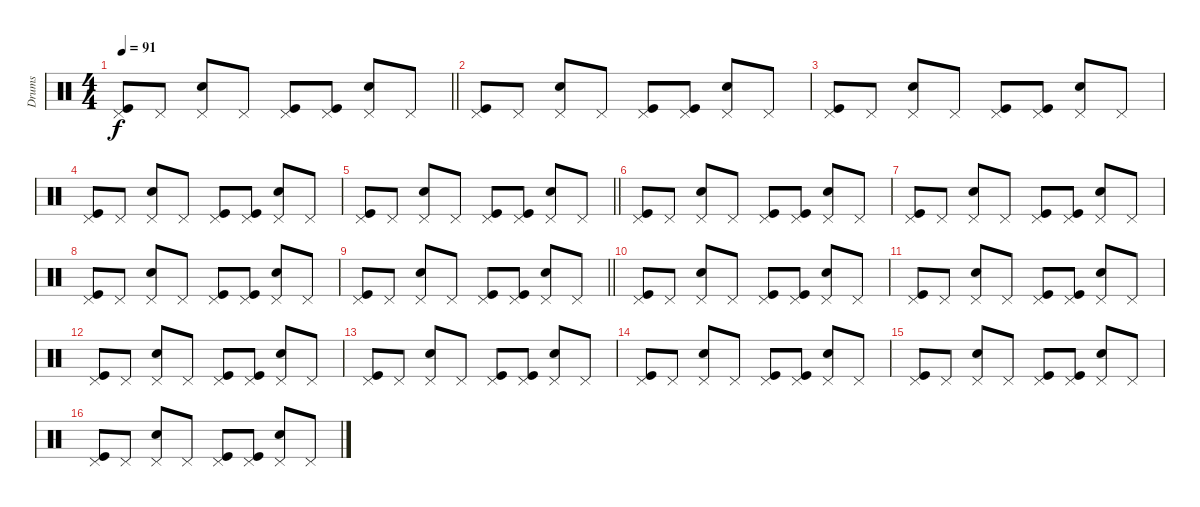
\track ("Drums" "Drums") {instrument percussion}
\staff {score}
\articulation defaults
\ts (4 4)
\tempo 91
\clef neutral
\barLineRight lightlight
\ks c
("Kick (hit)" "Pedal Hi-Hat (hit)").8{dy f} "Pedal Hi-Hat (hit)".8 ("Snare (hit) 2" "Pedal Hi-Hat (hit)").8 "Pedal Hi-Hat (hit)".8 ("Kick (hit)" "Pedal Hi-Hat (hit)").8 ("Kick (hit)" "Pedal Hi-Hat (hit)").8 ("Snare (hit) 2" "Pedal Hi-Hat (hit)").8 "Pedal Hi-Hat (hit)".8 |
("Kick (hit)" "Pedal Hi-Hat (hit)").8 "Pedal Hi-Hat (hit)".8 ("Snare (hit) 2" "Pedal Hi-Hat (hit)").8 "Pedal Hi-Hat (hit)".8 ("Kick (hit)" "Pedal Hi-Hat (hit)").8 ("Kick (hit)" "Pedal Hi-Hat (hit)").8 ("Snare (hit) 2" "Pedal Hi-Hat (hit)").8 "Pedal Hi-Hat (hit)".8 |
("Kick (hit)" "Pedal Hi-Hat (hit)").8 "Pedal Hi-Hat (hit)".8 ("Snare (hit) 2" "Pedal Hi-Hat (hit)").8 "Pedal Hi-Hat (hit)".8 ("Kick (hit)" "Pedal Hi-Hat (hit)").8 ("Kick (hit)" "Pedal Hi-Hat (hit)").8 ("Snare (hit) 2" "Pedal Hi-Hat (hit)").8 "Pedal Hi-Hat (hit)".8 |
("Kick (hit)" "Pedal Hi-Hat (hit)").8 "Pedal Hi-Hat (hit)".8 ("Snare (hit) 2" "Pedal Hi-Hat (hit)").8 "Pedal Hi-Hat (hit)".8 ("Kick (hit)" "Pedal Hi-Hat (hit)").8 ("Kick (hit)" "Pedal Hi-Hat (hit)").8 ("Snare (hit) 2" "Pedal Hi-Hat (hit)").8 "Pedal Hi-Hat (hit)".8 |
\barLineRight lightlight
("Kick (hit)" "Pedal Hi-Hat (hit)").8 "Pedal Hi-Hat (hit)".8 ("Snare (hit) 2" "Pedal Hi-Hat (hit)").8 "Pedal Hi-Hat (hit)".8 ("Kick (hit)" "Pedal Hi-Hat (hit)").8 ("Kick (hit)" "Pedal Hi-Hat (hit)").8 ("Snare (hit) 2" "Pedal Hi-Hat (hit)").8 "Pedal Hi-Hat (hit)".8 |
("Kick (hit)" "Pedal Hi-Hat (hit)").8 "Pedal Hi-Hat (hit)".8 ("Snare (hit) 2" "Pedal Hi-Hat (hit)").8 "Pedal Hi-Hat (hit)".8 ("Kick (hit)" "Pedal Hi-Hat (hit)").8 ("Kick (hit)" "Pedal Hi-Hat (hit)").8 ("Snare (hit) 2" "Pedal Hi-Hat (hit)").8 "Pedal Hi-Hat (hit)".8 |
("Kick (hit)" "Pedal Hi-Hat (hit)").8 "Pedal Hi-Hat (hit)".8 ("Snare (hit) 2" "Pedal Hi-Hat (hit)").8 "Pedal Hi-Hat (hit)".8 ("Kick (hit)" "Pedal Hi-Hat (hit)").8 ("Kick (hit)" "Pedal Hi-Hat (hit)").8 ("Snare (hit) 2" "Pedal Hi-Hat (hit)").8 "Pedal Hi-Hat (hit)".8 |
("Kick (hit)" "Pedal Hi-Hat (hit)").8 "Pedal Hi-Hat (hit)".8 ("Snare (hit) 2" "Pedal Hi-Hat (hit)").8 "Pedal Hi-Hat (hit)".8 ("Kick (hit)" "Pedal Hi-Hat (hit)").8 ("Kick (hit)" "Pedal Hi-Hat (hit)").8 ("Snare (hit) 2" "Pedal Hi-Hat (hit)").8 "Pedal Hi-Hat (hit)".8 |
\barLineRight lightlight
("Kick (hit)" "Pedal Hi-Hat (hit)").8 "Pedal Hi-Hat (hit)".8 ("Snare (hit) 2" "Pedal Hi-Hat (hit)").8 "Pedal Hi-Hat (hit)".8 ("Kick (hit)" "Pedal Hi-Hat (hit)").8 ("Kick (hit)" "Pedal Hi-Hat (hit)").8 ("Snare (hit) 2" "Pedal Hi-Hat (hit)").8 "Pedal Hi-Hat (hit)".8 |
("Kick (hit)" "Pedal Hi-Hat (hit)").8 "Pedal Hi-Hat (hit)".8 ("Snare (hit) 2" "Pedal Hi-Hat (hit)").8 "Pedal Hi-Hat (hit)".8 ("Kick (hit)" "Pedal Hi-Hat (hit)").8 ("Kick (hit)" "Pedal Hi-Hat (hit)").8 ("Snare (hit) 2" "Pedal Hi-Hat (hit)").8 "Pedal Hi-Hat (hit)".8 |
("Kick (hit)" "Pedal Hi-Hat (hit)").8 "Pedal Hi-Hat (hit)".8 ("Snare (hit) 2" "Pedal Hi-Hat (hit)").8 "Pedal Hi-Hat (hit)".8 ("Kick (hit)" "Pedal Hi-Hat (hit)").8 ("Kick (hit)" "Pedal Hi-Hat (hit)").8 ("Snare (hit) 2" "Pedal Hi-Hat (hit)").8 "Pedal Hi-Hat (hit)".8 |
("Kick (hit)" "Pedal Hi-Hat (hit)").8 "Pedal Hi-Hat (hit)".8 ("Snare (hit) 2" "Pedal Hi-Hat (hit)").8 "Pedal Hi-Hat (hit)".8 ("Kick (hit)" "Pedal Hi-Hat (hit)").8 ("Kick (hit)" "Pedal Hi-Hat (hit)").8 ("Snare (hit) 2" "Pedal Hi-Hat (hit)").8 "Pedal Hi-Hat (hit)".8 |
("Kick (hit)" "Pedal Hi-Hat (hit)").8 "Pedal Hi-Hat (hit)".8 ("Snare (hit) 2" "Pedal Hi-Hat (hit)").8 "Pedal Hi-Hat (hit)".8 ("Kick (hit)" "Pedal Hi-Hat (hit)").8 ("Kick (hit)" "Pedal Hi-Hat (hit)").8 ("Snare (hit) 2" "Pedal Hi-Hat (hit)").8 "Pedal Hi-Hat (hit)".8 |
("Kick (hit)" "Pedal Hi-Hat (hit)").8 "Pedal Hi-Hat (hit)".8 ("Snare (hit) 2" "Pedal Hi-Hat (hit)").8 "Pedal Hi-Hat (hit)".8 ("Kick (hit)" "Pedal Hi-Hat (hit)").8 ("Kick (hit)" "Pedal Hi-Hat (hit)").8 ("Snare (hit) 2" "Pedal Hi-Hat (hit)").8 "Pedal Hi-Hat (hit)".8 |
("Kick (hit)" "Pedal Hi-Hat (hit)").8 "Pedal Hi-Hat (hit)".8 ("Snare (hit) 2" "Pedal Hi-Hat (hit)").8 "Pedal Hi-Hat (hit)".8 ("Kick (hit)" "Pedal Hi-Hat (hit)").8 ("Kick (hit)" "Pedal Hi-Hat (hit)").8 ("Snare (hit) 2" "Pedal Hi-Hat (hit)").8 "Pedal Hi-Hat (hit)".8 |
("Kick (hit)" "Pedal Hi-Hat (hit)").8 "Pedal Hi-Hat (hit)".8 ("Snare (hit) 2" "Pedal Hi-Hat (hit)").8 "Pedal Hi-Hat (hit)".8 ("Kick (hit)" "Pedal Hi-Hat (hit)").8 ("Kick (hit)" "Pedal Hi-Hat (hit)").8 ("Snare (hit) 2" "Pedal Hi-Hat (hit)").8 "Pedal Hi-Hat (hit)".8
